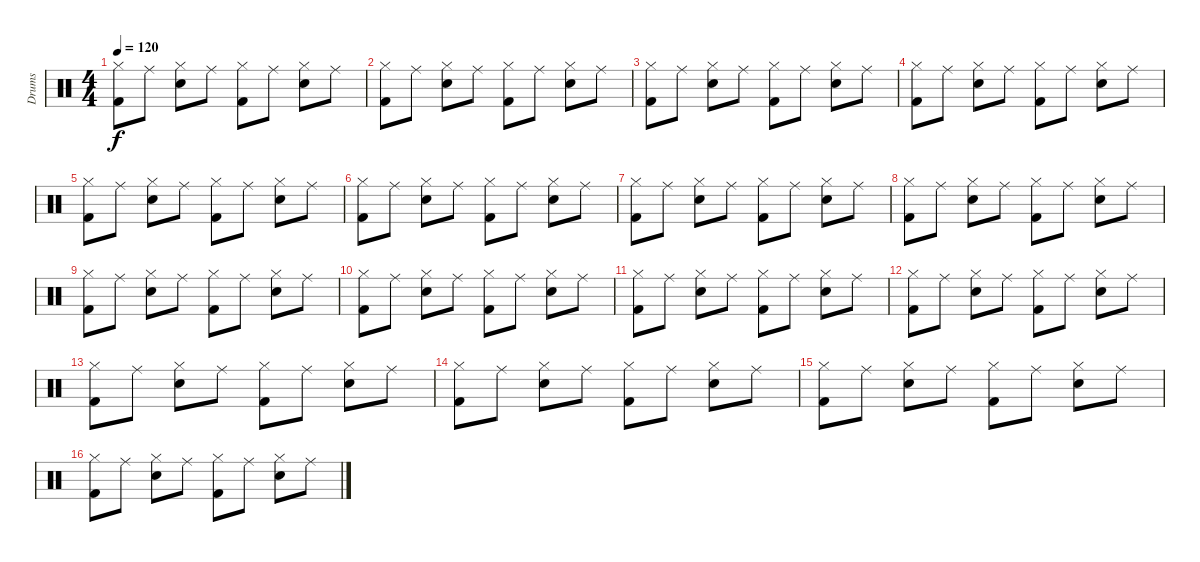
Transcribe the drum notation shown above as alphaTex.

\track ("Drums" "Drums") {instrument percussion}
\staff {score}
\articulation defaults
\ts (4 4)
\tempo 120
\clef neutral
\ks c
("Hi-Hat (closed)" "Kick (hit) 2").8{dy f} "Ride (middle)".8 ("Hi-Hat (closed)" "Electric Snare (hit)").8 "Ride (middle)".8 ("Hi-Hat (closed)" "Kick (hit) 2").8 "Ride (middle)".8 ("Hi-Hat (closed)" "Electric Snare (hit)").8 "Ride (middle)".8 |
("Hi-Hat (closed)" "Kick (hit) 2").8 "Ride (middle)".8 ("Hi-Hat (closed)" "Electric Snare (hit)").8 "Ride (middle)".8 ("Hi-Hat (closed)" "Kick (hit) 2").8 "Ride (middle)".8 ("Hi-Hat (closed)" "Electric Snare (hit)").8 "Ride (middle)".8 |
("Hi-Hat (closed)" "Kick (hit) 2").8 "Ride (middle)".8 ("Hi-Hat (closed)" "Electric Snare (hit)").8 "Ride (middle)".8 ("Hi-Hat (closed)" "Kick (hit) 2").8 "Ride (middle)".8 ("Hi-Hat (closed)" "Electric Snare (hit)").8 "Ride (middle)".8 |
("Hi-Hat (closed)" "Kick (hit) 2").8 "Ride (middle)".8 ("Hi-Hat (closed)" "Electric Snare (hit)").8 "Ride (middle)".8 ("Hi-Hat (closed)" "Kick (hit) 2").8 "Ride (middle)".8 ("Hi-Hat (closed)" "Electric Snare (hit)").8 "Ride (middle)".8 |
("Hi-Hat (closed)" "Kick (hit) 2").8 "Ride (middle)".8 ("Hi-Hat (closed)" "Electric Snare (hit)").8 "Ride (middle)".8 ("Hi-Hat (closed)" "Kick (hit) 2").8 "Ride (middle)".8 ("Hi-Hat (closed)" "Electric Snare (hit)").8 "Ride (middle)".8 |
("Hi-Hat (closed)" "Kick (hit) 2").8 "Ride (middle)".8 ("Hi-Hat (closed)" "Electric Snare (hit)").8 "Ride (middle)".8 ("Hi-Hat (closed)" "Kick (hit) 2").8 "Ride (middle)".8 ("Hi-Hat (closed)" "Electric Snare (hit)").8 "Ride (middle)".8 |
("Hi-Hat (closed)" "Kick (hit) 2").8 "Ride (middle)".8 ("Hi-Hat (closed)" "Electric Snare (hit)").8 "Ride (middle)".8 ("Hi-Hat (closed)" "Kick (hit) 2").8 "Ride (middle)".8 ("Hi-Hat (closed)" "Electric Snare (hit)").8 "Ride (middle)".8 |
("Hi-Hat (closed)" "Kick (hit) 2").8 "Ride (middle)".8 ("Hi-Hat (closed)" "Electric Snare (hit)").8 "Ride (middle)".8 ("Hi-Hat (closed)" "Kick (hit) 2").8 "Ride (middle)".8 ("Hi-Hat (closed)" "Electric Snare (hit)").8 "Ride (middle)".8 |
("Hi-Hat (closed)" "Kick (hit) 2").8 "Ride (middle)".8 ("Hi-Hat (closed)" "Electric Snare (hit)").8 "Ride (middle)".8 ("Hi-Hat (closed)" "Kick (hit) 2").8 "Ride (middle)".8 ("Hi-Hat (closed)" "Electric Snare (hit)").8 "Ride (middle)".8 |
("Hi-Hat (closed)" "Kick (hit) 2").8 "Ride (middle)".8 ("Hi-Hat (closed)" "Electric Snare (hit)").8 "Ride (middle)".8 ("Hi-Hat (closed)" "Kick (hit) 2").8 "Ride (middle)".8 ("Hi-Hat (closed)" "Electric Snare (hit)").8 "Ride (middle)".8 |
("Hi-Hat (closed)" "Kick (hit) 2").8 "Ride (middle)".8 ("Hi-Hat (closed)" "Electric Snare (hit)").8 "Ride (middle)".8 ("Hi-Hat (closed)" "Kick (hit) 2").8 "Ride (middle)".8 ("Hi-Hat (closed)" "Electric Snare (hit)").8 "Ride (middle)".8 |
("Hi-Hat (closed)" "Kick (hit) 2").8 "Ride (middle)".8 ("Hi-Hat (closed)" "Electric Snare (hit)").8 "Ride (middle)".8 ("Hi-Hat (closed)" "Kick (hit) 2").8 "Ride (middle)".8 ("Hi-Hat (closed)" "Electric Snare (hit)").8 "Ride (middle)".8 |
("Hi-Hat (closed)" "Kick (hit) 2").8 "Ride (middle)".8 ("Hi-Hat (closed)" "Electric Snare (hit)").8 "Ride (middle)".8 ("Hi-Hat (closed)" "Kick (hit) 2").8 "Ride (middle)".8 ("Hi-Hat (closed)" "Electric Snare (hit)").8 "Ride (middle)".8 |
("Hi-Hat (closed)" "Kick (hit) 2").8 "Ride (middle)".8 ("Hi-Hat (closed)" "Electric Snare (hit)").8 "Ride (middle)".8 ("Hi-Hat (closed)" "Kick (hit) 2").8 "Ride (middle)".8 ("Hi-Hat (closed)" "Electric Snare (hit)").8 "Ride (middle)".8 |
("Hi-Hat (closed)" "Kick (hit) 2").8 "Ride (middle)".8 ("Hi-Hat (closed)" "Electric Snare (hit)").8 "Ride (middle)".8 ("Hi-Hat (closed)" "Kick (hit) 2").8 "Ride (middle)".8 ("Hi-Hat (closed)" "Electric Snare (hit)").8 "Ride (middle)".8 |
("Hi-Hat (closed)" "Kick (hit) 2").8 "Ride (middle)".8 ("Hi-Hat (closed)" "Electric Snare (hit)").8 "Ride (middle)".8 ("Hi-Hat (closed)" "Kick (hit) 2").8 "Ride (middle)".8 ("Hi-Hat (closed)" "Electric Snare (hit)").8 "Ride (middle)".8
